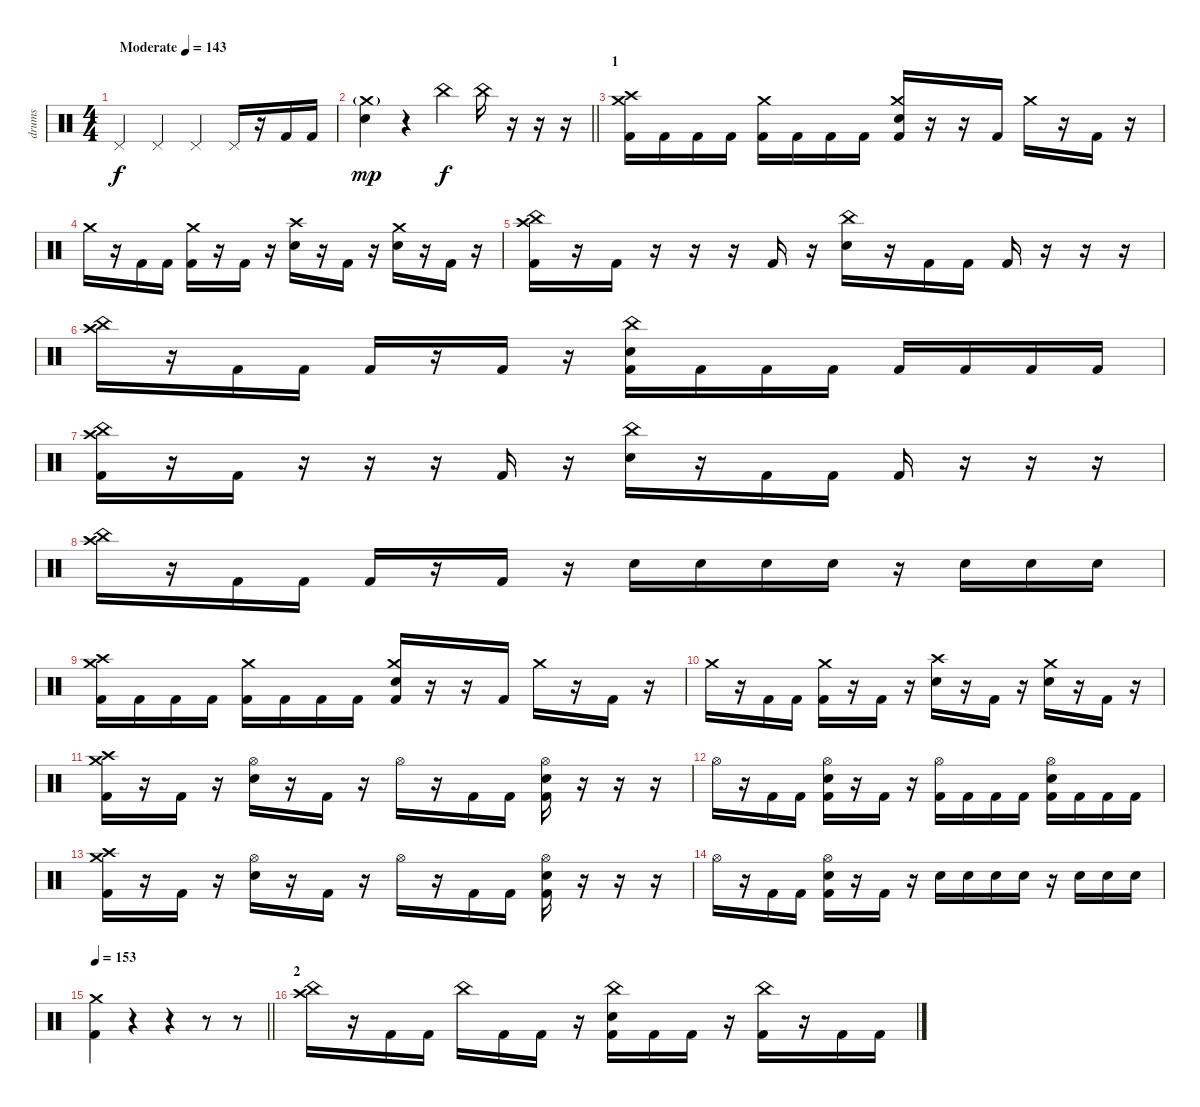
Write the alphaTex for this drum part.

\track ("drums" "drums") {instrument percussion}
\staff {score}
\articulation defaults
\ts (4 4)
\tempo (143 "Moderate")
\clef neutral
\ks c "Pedal Hi-Hat (hit)".4{dy f} "Pedal Hi-Hat (hit)".4 "Pedal Hi-Hat (hit)".4 "Pedal Hi-Hat (hit)".16
r.16 "Kick (hit) 2".16 "Kick (hit) 2".16 |
\barLineRight lightlight
("Crash medium (hit)"{g} "Electric Snare (hit)").4{dy mp} r.4 "China (hit)".4{dy f} "China (hit)".16 r.16 r.16 r.16 |
\section ("" "1")
("Crash medium (hit)" "Crash high (hit)" "Kick (hit) 2").16 "Kick (hit) 2".16 "Kick (hit) 2".16 "Kick (hit) 2".16 ("Crash medium (hit)" "Kick (hit) 2").16 "Kick (hit) 2".16 "Kick (hit) 2".16 "Kick (hit) 2".16 ("Crash medium (hit)" "Electric Snare (hit)" "Kick (hit) 2").16 r.16 r.16 "Kick (hit) 2".16 "Crash medium (hit)".16 r.16 "Kick (hit) 2".16 r.16 |
"Crash medium (hit)".16 r.16 "Kick (hit) 2".16 "Kick (hit) 2".16 ("Crash medium (hit)" "Kick (hit) 2").16 r.16 "Kick (hit) 2".16 r.16 ("Crash high (hit)" "Electric Snare (hit)").16 r.16 "Kick (hit) 2".16 r.16 ("Crash medium (hit)" "Electric Snare (hit)").16 r.16 "Kick (hit) 2".16 r.16 |
("China (hit)" "Crash high (hit)" "Kick (hit) 2").16 r.16 "Kick (hit) 2".16 r.16 r.16 r.16 "Kick (hit) 2".16 r.16 ("China (hit)" "Electric Snare (hit)").16 r.16 "Kick (hit) 2".16 "Kick (hit) 2".16 "Kick (hit) 2".16 r.16 r.16 r.16 |
("China (hit)" "Crash high (hit)").16 r.16 "Kick (hit) 2".16 "Kick (hit) 2".16 "Kick (hit) 2".16 r.16 "Kick (hit) 2".16 r.16 ("China (hit)" "Electric Snare (hit)" "Kick (hit) 2").16 "Kick (hit) 2".16 "Kick (hit) 2".16 "Kick (hit) 2".16 "Kick (hit) 2".16 "Kick (hit) 2".16 "Kick (hit) 2".16 "Kick (hit) 2".16 |
("China (hit)" "Crash high (hit)" "Kick (hit) 2").16 r.16 "Kick (hit) 2".16 r.16 r.16 r.16 "Kick (hit) 2".16 r.16 ("China (hit)" "Electric Snare (hit)").16 r.16 "Kick (hit) 2".16 "Kick (hit) 2".16 "Kick (hit) 2".16 r.16 r.16 r.16 |
("China (hit)" "Crash high (hit)").16 r.16 "Kick (hit) 2".16 "Kick (hit) 2".16 "Kick (hit) 2".16 r.16 "Kick (hit) 2".16 r.16 "Electric Snare (hit)".16 "Electric Snare (hit)".16 "Electric Snare (hit)".16 "Electric Snare (hit)".16 r.16 "Electric Snare (hit)".16 "Electric Snare (hit)".16 "Electric Snare (hit)".16 |
("Crash medium (hit)" "Crash high (hit)" "Kick (hit) 2").16 "Kick (hit) 2".16 "Kick (hit) 2".16 "Kick (hit) 2".16 ("Crash medium (hit)" "Kick (hit) 2").16 "Kick (hit) 2".16 "Kick (hit) 2".16 "Kick (hit) 2".16 ("Crash medium (hit)" "Electric Snare (hit)" "Kick (hit) 2").16 r.16 r.16 "Kick (hit) 2".16 "Crash medium (hit)".16 r.16 "Kick (hit) 2".16 r.16 |
"Crash medium (hit)".16 r.16 "Kick (hit) 2".16 "Kick (hit) 2".16 ("Crash medium (hit)" "Kick (hit) 2").16 r.16 "Kick (hit) 2".16 r.16 ("Crash high (hit)" "Electric Snare (hit)").16 r.16 "Kick (hit) 2".16 r.16 ("Crash medium (hit)" "Electric Snare (hit)").16 r.16 "Kick (hit) 2".16 r.16 |
("Crash medium (hit)" "Crash high (hit)" "Kick (hit) 2").16 r.16 "Kick (hit) 2".16 r.16 ("Hi-Hat (open)" "Electric Snare (hit)").16 r.16 "Kick (hit) 2".16 r.16 "Hi-Hat (open)".16 r.16 "Kick (hit) 2".16 "Kick (hit) 2".16 ("Hi-Hat (open)" "Electric Snare (hit)" "Kick (hit) 2").16 r.16 r.16 r.16 |
"Hi-Hat (open)".16 r.16 "Kick (hit) 2".16 "Kick (hit) 2".16 ("Hi-Hat (open)" "Electric Snare (hit)" "Kick (hit) 2").16 r.16 "Kick (hit) 2".16 r.16 ("Hi-Hat (open)" "Kick (hit) 2").16 "Kick (hit) 2".16 "Kick (hit) 2".16 "Kick (hit) 2".16 ("Hi-Hat (open)" "Electric Snare (hit)" "Kick (hit) 2").16 "Kick (hit) 2".16 "Kick (hit) 2".16 "Kick (hit) 2".16 |
("Crash medium (hit)" "Crash high (hit)" "Kick (hit) 2").16 r.16 "Kick (hit) 2".16 r.16 ("Hi-Hat (open)" "Electric Snare (hit)").16 r.16 "Kick (hit) 2".16 r.16 "Hi-Hat (open)".16 r.16 "Kick (hit) 2".16 "Kick (hit) 2".16 ("Hi-Hat (open)" "Electric Snare (hit)" "Kick (hit) 2").16 r.16 r.16 r.16 |
"Hi-Hat (open)".16 r.16 "Kick (hit) 2".16 "Kick (hit) 2".16 ("Hi-Hat (open)" "Electric Snare (hit)" "Kick (hit) 2").16 r.16 "Kick (hit) 2".16 r.16 "Electric Snare (hit)".16 "Electric Snare (hit)".16 "Electric Snare (hit)".16 "Electric Snare (hit)".16 r.16 "Electric Snare (hit)".16 "Electric Snare (hit)".16 "Electric Snare (hit)".16 |
\tempo 153
\barLineRight lightlight
("Crash medium (hit)" "Kick (hit) 2").4 r.4 r.4 r.8 r.8 |
\section ("" "2")
("China (hit)" "Crash high (hit)").16 r.16 "Kick (hit) 2".16 "Kick (hit) 2".16 "China (hit)".16 "Kick (hit) 2".16 "Kick (hit) 2".16 r.16 ("China (hit)" "Electric Snare (hit)" "Kick (hit) 2").16 "Kick (hit) 2".16 "Kick (hit) 2".16 r.16 ("China (hit)" "Kick (hit) 2").16 r.16 "Kick (hit) 2".16 "Kick (hit) 2".16
